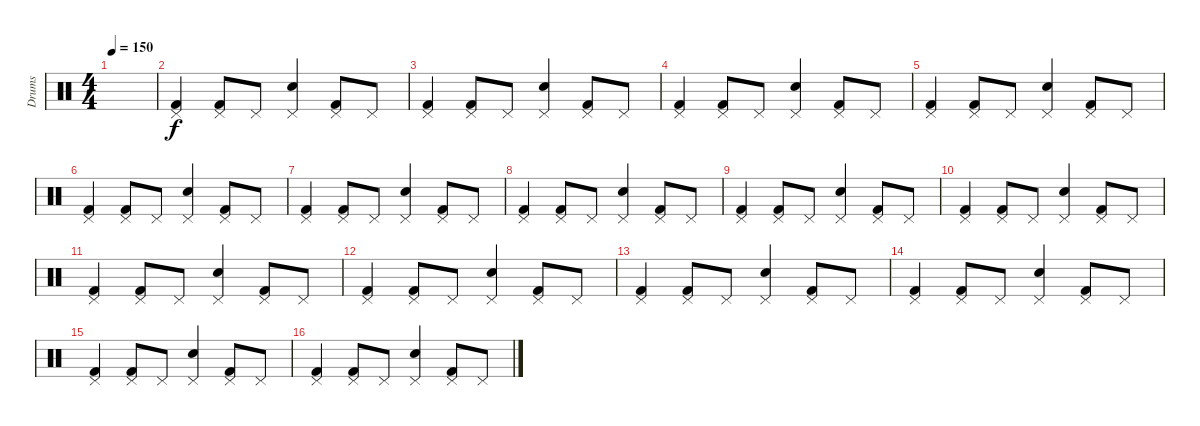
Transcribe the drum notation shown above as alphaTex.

\track ("Drums" "Drums") {instrument percussion}
\staff {score}
\articulation defaults
\ts (4 4)
\tempo 150
\clef neutral
\ks c
|
("Pedal Hi-Hat (hit)" "Kick (hit) 2").4 ("Pedal Hi-Hat (hit)" "Kick (hit) 2").8 "Pedal Hi-Hat (hit)".8 ("Pedal Hi-Hat (hit)" "Snare (hit) 2").4 ("Pedal Hi-Hat (hit)" "Kick (hit) 2").8 "Pedal Hi-Hat (hit)".8 |
("Pedal Hi-Hat (hit)" "Kick (hit) 2").4 ("Pedal Hi-Hat (hit)" "Kick (hit) 2").8 "Pedal Hi-Hat (hit)".8 ("Pedal Hi-Hat (hit)" "Snare (hit) 2").4 ("Pedal Hi-Hat (hit)" "Kick (hit) 2").8 "Pedal Hi-Hat (hit)".8 |
("Pedal Hi-Hat (hit)" "Kick (hit) 2").4 ("Pedal Hi-Hat (hit)" "Kick (hit) 2").8 "Pedal Hi-Hat (hit)".8 ("Pedal Hi-Hat (hit)" "Snare (hit) 2").4 ("Pedal Hi-Hat (hit)" "Kick (hit) 2").8 "Pedal Hi-Hat (hit)".8 |
("Pedal Hi-Hat (hit)" "Kick (hit) 2").4 ("Pedal Hi-Hat (hit)" "Kick (hit) 2").8 "Pedal Hi-Hat (hit)".8 ("Pedal Hi-Hat (hit)" "Snare (hit) 2").4 ("Pedal Hi-Hat (hit)" "Kick (hit) 2").8 "Pedal Hi-Hat (hit)".8 |
("Pedal Hi-Hat (hit)" "Kick (hit) 2").4 ("Pedal Hi-Hat (hit)" "Kick (hit) 2").8 "Pedal Hi-Hat (hit)".8 ("Pedal Hi-Hat (hit)" "Snare (hit) 2").4 ("Pedal Hi-Hat (hit)" "Kick (hit) 2").8 "Pedal Hi-Hat (hit)".8 |
("Pedal Hi-Hat (hit)" "Kick (hit) 2").4 ("Pedal Hi-Hat (hit)" "Kick (hit) 2").8 "Pedal Hi-Hat (hit)".8 ("Pedal Hi-Hat (hit)" "Snare (hit) 2").4 ("Pedal Hi-Hat (hit)" "Kick (hit) 2").8 "Pedal Hi-Hat (hit)".8 |
("Pedal Hi-Hat (hit)" "Kick (hit) 2").4 ("Pedal Hi-Hat (hit)" "Kick (hit) 2").8 "Pedal Hi-Hat (hit)".8 ("Pedal Hi-Hat (hit)" "Snare (hit) 2").4 ("Pedal Hi-Hat (hit)" "Kick (hit) 2").8 "Pedal Hi-Hat (hit)".8 |
("Pedal Hi-Hat (hit)" "Kick (hit) 2").4 ("Pedal Hi-Hat (hit)" "Kick (hit) 2").8 "Pedal Hi-Hat (hit)".8 ("Pedal Hi-Hat (hit)" "Snare (hit) 2").4 ("Pedal Hi-Hat (hit)" "Kick (hit) 2").8 "Pedal Hi-Hat (hit)".8 |
("Pedal Hi-Hat (hit)" "Kick (hit) 2").4 ("Pedal Hi-Hat (hit)" "Kick (hit) 2").8 "Pedal Hi-Hat (hit)".8 ("Pedal Hi-Hat (hit)" "Snare (hit) 2").4 ("Pedal Hi-Hat (hit)" "Kick (hit) 2").8 "Pedal Hi-Hat (hit)".8 |
("Pedal Hi-Hat (hit)" "Kick (hit) 2").4 ("Pedal Hi-Hat (hit)" "Kick (hit) 2").8 "Pedal Hi-Hat (hit)".8 ("Pedal Hi-Hat (hit)" "Snare (hit) 2").4 ("Pedal Hi-Hat (hit)" "Kick (hit) 2").8 "Pedal Hi-Hat (hit)".8 |
("Pedal Hi-Hat (hit)" "Kick (hit) 2").4 ("Pedal Hi-Hat (hit)" "Kick (hit) 2").8 "Pedal Hi-Hat (hit)".8 ("Pedal Hi-Hat (hit)" "Snare (hit) 2").4 ("Pedal Hi-Hat (hit)" "Kick (hit) 2").8 "Pedal Hi-Hat (hit)".8 |
("Pedal Hi-Hat (hit)" "Kick (hit) 2").4 ("Pedal Hi-Hat (hit)" "Kick (hit) 2").8 "Pedal Hi-Hat (hit)".8 ("Pedal Hi-Hat (hit)" "Snare (hit) 2").4 ("Pedal Hi-Hat (hit)" "Kick (hit) 2").8 "Pedal Hi-Hat (hit)".8 |
("Pedal Hi-Hat (hit)" "Kick (hit) 2").4 ("Pedal Hi-Hat (hit)" "Kick (hit) 2").8 "Pedal Hi-Hat (hit)".8 ("Pedal Hi-Hat (hit)" "Snare (hit) 2").4 ("Pedal Hi-Hat (hit)" "Kick (hit) 2").8 "Pedal Hi-Hat (hit)".8 |
("Pedal Hi-Hat (hit)" "Kick (hit) 2").4 ("Pedal Hi-Hat (hit)" "Kick (hit) 2").8 "Pedal Hi-Hat (hit)".8 ("Pedal Hi-Hat (hit)" "Snare (hit) 2").4 ("Pedal Hi-Hat (hit)" "Kick (hit) 2").8 "Pedal Hi-Hat (hit)".8 |
("Pedal Hi-Hat (hit)" "Kick (hit) 2").4 ("Pedal Hi-Hat (hit)" "Kick (hit) 2").8 "Pedal Hi-Hat (hit)".8 ("Pedal Hi-Hat (hit)" "Snare (hit) 2").4 ("Pedal Hi-Hat (hit)" "Kick (hit) 2").8 "Pedal Hi-Hat (hit)".8
